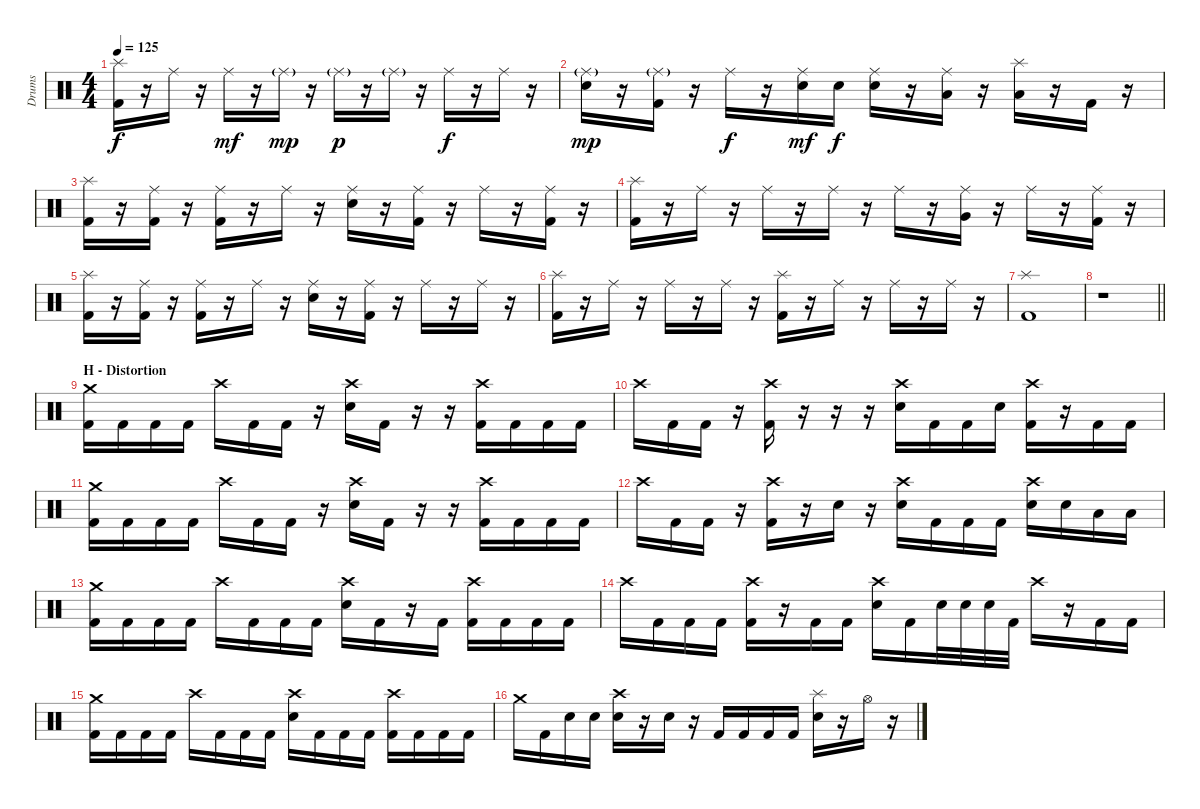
\track ("Drums" "Drums") {instrument percussion}
\staff {score}
\articulation defaults
\ts (4 4)
\tempo 125
\clef neutral
\ks c
("Splash (hit)" "Kick (hit) 2").16{dy f} r.16 "Ride (middle)".16 r.16 "Ride (middle)".16{dy mf} r.16 "Ride (middle)"{g}.16{dy mp} r.16 "Ride (middle)"{g}.16{dy p} r.16 "Ride (middle)"{g}.16 r.16 "Ride (middle)".16{dy f} r.16 "Ride (middle)".16 r.16 |
("Ride (middle)"{g} "Electric Snare (hit)").16{dy mp} r.16 ("Ride (middle)"{g} "Kick (hit) 2").16 r.16 "Ride (middle)".16{dy f} r.16 ("Ride (middle)" "Electric Snare (hit)").16{dy mf} "Electric Snare (hit)".16{dy f} ("Ride (middle)" "Electric Snare (hit)").16 r.16 ("Ride (middle)" "Low Tom (hit)").16 r.16 ("Splash (hit)" "Low Tom (hit)").16 r.16 "Kick (hit) 2".16 r.16 |
("Splash (hit)" "Kick (hit) 2").16 r.16 ("Ride (middle)" "Kick (hit) 2").16 r.16 ("Ride (middle)" "Kick (hit) 2").16 r.16 "Ride (middle)".16 r.16 ("Ride (middle)" "Electric Snare (hit)").16 r.16 ("Ride (middle)" "Kick (hit) 2").16 r.16 "Ride (middle)".16 r.16 ("Ride (middle)" "Kick (hit) 2").16 r.16 |
("Splash (hit)" "Kick (hit) 2").16 r.16 "Ride (middle)".16 r.16 "Ride (middle)".16 r.16 "Ride (middle)".16 r.16 "Ride (middle)".16 r.16 ("Ride (middle)" "Very Low Tom (hit)").16 r.16 "Ride (middle)".16 r.16 ("Ride (middle)" "Kick (hit) 2").16 r.16 |
("Splash (hit)" "Kick (hit) 2").16 r.16 ("Ride (middle)" "Kick (hit) 2").16 r.16 ("Ride (middle)" "Kick (hit) 2").16 r.16 "Ride (middle)".16 r.16 ("Ride (middle)" "Electric Snare (hit)").16 r.16 ("Ride (middle)" "Kick (hit) 2").16 r.16 "Ride (middle)".16 r.16 "Ride (middle)".16 r.16 |
("Splash (hit)" "Kick (hit) 2").16 r.16 "Ride (middle)".16 r.16 "Ride (middle)".16 r.16 "Ride (middle)".16 r.16 ("Splash (hit)" "Kick (hit) 2").16 r.16 "Ride (middle)".16 r.16 "Ride (middle)".16 r.16 "Ride (middle)".16 r.16 |
("Splash (hit)" "Kick (hit) 2").1 |
\barLineRight lightlight
r.1 |
\section ("" "H - Distortion ")
("Crash medium (hit)" "Kick (hit) 2").16 "Kick (hit) 2".16 "Kick (hit) 2".16 "Kick (hit) 2".16 "Crash high (hit)".16 "Kick (hit) 2".16 "Kick (hit) 2".16 r.16 ("Crash high (hit)" "Electric Snare (hit)").16 "Kick (hit) 2".16 r.16 r.16 ("Crash high (hit)" "Kick (hit) 2").16 "Kick (hit) 2".16 "Kick (hit) 2".16 "Kick (hit) 2".16 |
"Crash high (hit)".16 "Kick (hit) 2".16 "Kick (hit) 2".16 r.16 ("Crash high (hit)" "Kick (hit) 2").16 r.16 r.16 r.16 ("Crash high (hit)" "Electric Snare (hit)").16 "Kick (hit) 2".16 "Kick (hit) 2".16 "Electric Snare (hit)".16 ("Crash high (hit)" "Kick (hit) 2").16 r.16 "Kick (hit) 2".16 "Kick (hit) 2".16 |
("Crash medium (hit)" "Kick (hit) 2").16 "Kick (hit) 2".16 "Kick (hit) 2".16 "Kick (hit) 2".16 "Crash high (hit)".16 "Kick (hit) 2".16 "Kick (hit) 2".16 r.16 ("Crash high (hit)" "Electric Snare (hit)").16 "Kick (hit) 2".16 r.16 r.16 ("Crash high (hit)" "Kick (hit) 2").16 "Kick (hit) 2".16 "Kick (hit) 2".16 "Kick (hit) 2".16 |
"Crash high (hit)".16 "Kick (hit) 2".16 "Kick (hit) 2".16 r.16 ("Crash high (hit)" "Kick (hit) 2").16 r.16 "Electric Snare (hit)".16 r.16 ("Crash high (hit)" "Electric Snare (hit)").16 "Kick (hit) 2".16 "Kick (hit) 2".16 "Kick (hit) 2".16 ("Crash high (hit)" "Electric Snare (hit)").16 "Electric Snare (hit)".16 "Low Tom (hit)".16 "Low Tom (hit)".16 |
("Crash medium (hit)" "Kick (hit) 2").16 "Kick (hit) 2".16 "Kick (hit) 2".16 "Kick (hit) 2".16 "Crash high (hit)".16 "Kick (hit) 2".16 "Kick (hit) 2".16 "Kick (hit) 2".16 ("Crash high (hit)" "Electric Snare (hit)").16 "Kick (hit) 2".16 r.16 "Kick (hit) 2".16 ("Crash high (hit)" "Kick (hit) 2").16 "Kick (hit) 2".16 "Kick (hit) 2".16 "Kick (hit) 2".16 |
"Crash high (hit)".16 "Kick (hit) 2".16 "Kick (hit) 2".16 "Kick (hit) 2".16 ("Crash high (hit)" "Kick (hit) 2").16 r.16 "Kick (hit) 2".16 "Kick (hit) 2".16 ("Crash high (hit)" "Electric Snare (hit)").16 "Kick (hit) 2".16 "Electric Snare (hit)".32 "Electric Snare (hit)".32 "Electric Snare (hit)".32 "Kick (hit) 2".32 "Crash high (hit)".16 r.16 "Kick (hit) 2".16 "Kick (hit) 2".16 |
("Crash medium (hit)" "Kick (hit) 2").16 "Kick (hit) 2".16 "Kick (hit) 2".16 "Kick (hit) 2".16 "Crash high (hit)".16 "Kick (hit) 2".16 "Kick (hit) 2".16 "Kick (hit) 2".16 ("Crash high (hit)" "Electric Snare (hit)").16 "Kick (hit) 2".16 "Kick (hit) 2".16 "Kick (hit) 2".16 ("Crash high (hit)" "Kick (hit) 2").16 "Kick (hit) 2".16 "Kick (hit) 2".16 "Kick (hit) 2".16 |
"Crash medium (hit)".16 "Kick (hit) 2".16 "Electric Snare (hit)".16 "Electric Snare (hit)".16 ("Crash high (hit)" "Electric Snare (hit)").16 r.16 "Electric Snare (hit)".16 r.16 "Kick (hit) 2".16 "Kick (hit) 2".16 "Kick (hit) 2".16 "Kick (hit) 2".16 ("Splash (hit)" "Electric Snare (hit)").16 r.16 "Hi-Hat (open)".16 r.16
